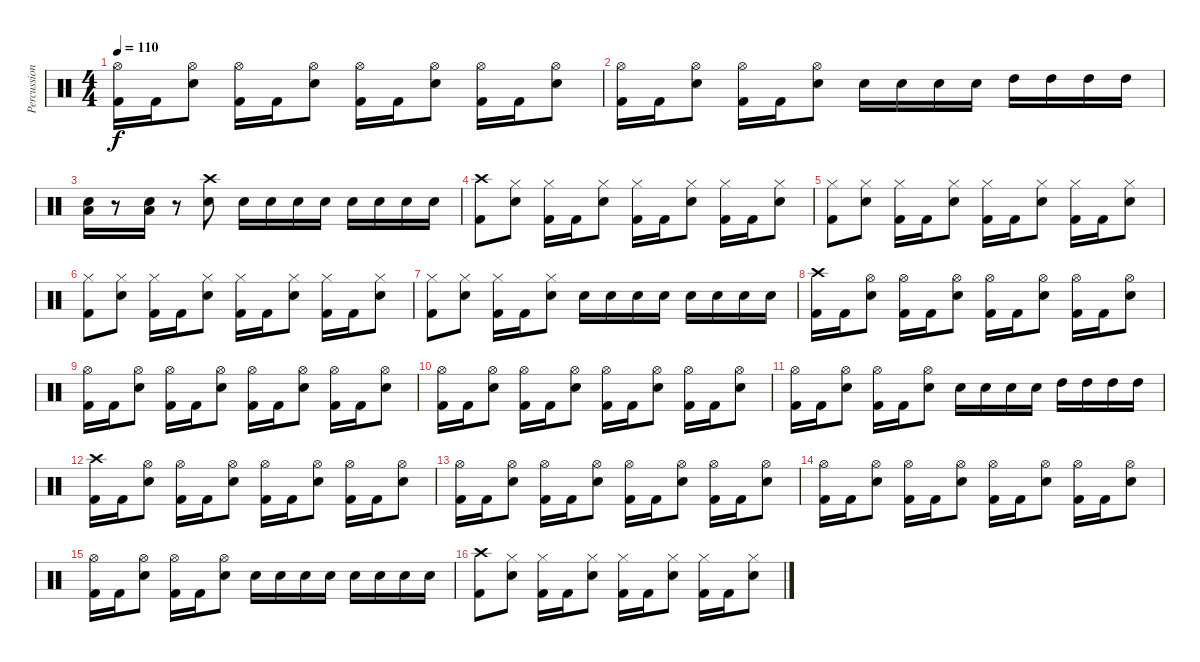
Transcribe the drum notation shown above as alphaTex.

\track ("Percussion" "Percussion") {instrument percussion}
\staff {score}
\articulation defaults
\ts (4 4)
\tempo 110
\clef neutral
\ks c
("Hi-Hat (open)" "Kick (hit) 2").16{dy f} "Kick (hit) 2".16 ("Hi-Hat (open)" "Electric Snare (hit)").8 ("Hi-Hat (open)" "Kick (hit) 2").16 "Kick (hit) 2".16 ("Hi-Hat (open)" "Electric Snare (hit)").8 ("Hi-Hat (open)" "Kick (hit) 2").16 "Kick (hit) 2".16 ("Hi-Hat (open)" "Electric Snare (hit)").8 ("Hi-Hat (open)" "Kick (hit) 2").16 "Kick (hit) 2".16 ("Hi-Hat (open)" "Electric Snare (hit)").8 |
("Hi-Hat (open)" "Kick (hit) 2").16 "Kick (hit) 2".16 ("Hi-Hat (open)" "Electric Snare (hit)").8 ("Hi-Hat (open)" "Kick (hit) 2").16 "Kick (hit) 2".16 ("Hi-Hat (open)" "Electric Snare (hit)").8 "Electric Snare (hit)".16 "Electric Snare (hit)".16 "Electric Snare (hit)".16 "Electric Snare (hit)".16 "High Tom (hit)".16 "High Tom (hit)".16 "High Tom (hit)".16 "High Tom (hit)".16 |
("Low Tom (hit)" "Electric Snare (hit)").16 r.8 ("Low Tom (hit)" "Electric Snare (hit)").16 r.8 ("Crash high (hit)" "Electric Snare (hit)").8 "Electric Snare (hit)".16 "Electric Snare (hit)".16 "Electric Snare (hit)".16 "Electric Snare (hit)".16 "Electric Snare (hit)".16 "Electric Snare (hit)".16 "Electric Snare (hit)".16 "Electric Snare (hit)".16 |
("Crash high (hit)" "Kick (hit) 2").8 ("Hi-Hat (closed)" "Electric Snare (hit)").8 ("Hi-Hat (closed)" "Kick (hit) 2").16 "Kick (hit) 2".16 ("Hi-Hat (closed)" "Electric Snare (hit)").8 ("Hi-Hat (closed)" "Kick (hit) 2").16 "Kick (hit) 2".16 ("Hi-Hat (closed)" "Electric Snare (hit)").8 ("Hi-Hat (closed)" "Kick (hit) 2").16 "Kick (hit) 2".16 ("Hi-Hat (closed)" "Electric Snare (hit)").8 |
("Hi-Hat (closed)" "Kick (hit) 2").8 ("Hi-Hat (closed)" "Electric Snare (hit)").8 ("Hi-Hat (closed)" "Kick (hit) 2").16 "Kick (hit) 2".16 ("Hi-Hat (closed)" "Electric Snare (hit)").8 ("Hi-Hat (closed)" "Kick (hit) 2").16 "Kick (hit) 2".16 ("Hi-Hat (closed)" "Electric Snare (hit)").8 ("Hi-Hat (closed)" "Kick (hit) 2").16 "Kick (hit) 2".16 ("Hi-Hat (closed)" "Electric Snare (hit)").8 |
("Hi-Hat (closed)" "Kick (hit) 2").8 ("Hi-Hat (closed)" "Electric Snare (hit)").8 ("Hi-Hat (closed)" "Kick (hit) 2").16 "Kick (hit) 2".16 ("Hi-Hat (closed)" "Electric Snare (hit)").8 ("Hi-Hat (closed)" "Kick (hit) 2").16 "Kick (hit) 2".16 ("Hi-Hat (closed)" "Electric Snare (hit)").8 ("Hi-Hat (closed)" "Kick (hit) 2").16 "Kick (hit) 2".16 ("Hi-Hat (closed)" "Electric Snare (hit)").8 |
("Hi-Hat (closed)" "Kick (hit) 2").8 ("Hi-Hat (closed)" "Electric Snare (hit)").8 ("Hi-Hat (closed)" "Kick (hit) 2").16 "Kick (hit) 2".16 ("Hi-Hat (closed)" "Electric Snare (hit)").8 "Electric Snare (hit)".16 "Electric Snare (hit)".16 "Electric Snare (hit)".16 "Electric Snare (hit)".16 "Electric Snare (hit)".16 "Electric Snare (hit)".16 "Electric Snare (hit)".16 "Electric Snare (hit)".16 |
("Crash high (hit)" "Kick (hit) 2").16 "Kick (hit) 2".16 ("Hi-Hat (open)" "Electric Snare (hit)").8 ("Hi-Hat (open)" "Kick (hit) 2").16 "Kick (hit) 2".16 ("Hi-Hat (open)" "Electric Snare (hit)").8 ("Hi-Hat (open)" "Kick (hit) 2").16 "Kick (hit) 2".16 ("Hi-Hat (open)" "Electric Snare (hit)").8 ("Hi-Hat (open)" "Kick (hit) 2").16 "Kick (hit) 2".16 ("Hi-Hat (open)" "Electric Snare (hit)").8 |
("Hi-Hat (open)" "Kick (hit) 2").16 "Kick (hit) 2".16 ("Hi-Hat (open)" "Electric Snare (hit)").8 ("Hi-Hat (open)" "Kick (hit) 2").16 "Kick (hit) 2".16 ("Hi-Hat (open)" "Electric Snare (hit)").8 ("Hi-Hat (open)" "Kick (hit) 2").16 "Kick (hit) 2".16 ("Hi-Hat (open)" "Electric Snare (hit)").8 ("Hi-Hat (open)" "Kick (hit) 2").16 "Kick (hit) 2".16 ("Hi-Hat (open)" "Electric Snare (hit)").8 |
("Hi-Hat (open)" "Kick (hit) 2").16 "Kick (hit) 2".16 ("Hi-Hat (open)" "Electric Snare (hit)").8 ("Hi-Hat (open)" "Kick (hit) 2").16 "Kick (hit) 2".16 ("Hi-Hat (open)" "Electric Snare (hit)").8 ("Hi-Hat (open)" "Kick (hit) 2").16 "Kick (hit) 2".16 ("Hi-Hat (open)" "Electric Snare (hit)").8 ("Hi-Hat (open)" "Kick (hit) 2").16 "Kick (hit) 2".16 ("Hi-Hat (open)" "Electric Snare (hit)").8 |
("Hi-Hat (open)" "Kick (hit) 2").16 "Kick (hit) 2".16 ("Hi-Hat (open)" "Electric Snare (hit)").8 ("Hi-Hat (open)" "Kick (hit) 2").16 "Kick (hit) 2".16 ("Hi-Hat (open)" "Electric Snare (hit)").8 "Electric Snare (hit)".16 "Electric Snare (hit)".16 "Electric Snare (hit)".16 "Electric Snare (hit)".16 "High Tom (hit)".16 "High Tom (hit)".16 "High Tom (hit)".16 "High Tom (hit)".16 |
("Crash high (hit)" "Kick (hit) 2").16 "Kick (hit) 2".16 ("Hi-Hat (open)" "Electric Snare (hit)").8 ("Hi-Hat (open)" "Kick (hit) 2").16 "Kick (hit) 2".16 ("Hi-Hat (open)" "Electric Snare (hit)").8 ("Hi-Hat (open)" "Kick (hit) 2").16 "Kick (hit) 2".16 ("Hi-Hat (open)" "Electric Snare (hit)").8 ("Hi-Hat (open)" "Kick (hit) 2").16 "Kick (hit) 2".16 ("Hi-Hat (open)" "Electric Snare (hit)").8 |
("Hi-Hat (open)" "Kick (hit) 2").16 "Kick (hit) 2".16 ("Hi-Hat (open)" "Electric Snare (hit)").8 ("Hi-Hat (open)" "Kick (hit) 2").16 "Kick (hit) 2".16 ("Hi-Hat (open)" "Electric Snare (hit)").8 ("Hi-Hat (open)" "Kick (hit) 2").16 "Kick (hit) 2".16 ("Hi-Hat (open)" "Electric Snare (hit)").8 ("Hi-Hat (open)" "Kick (hit) 2").16 "Kick (hit) 2".16 ("Hi-Hat (open)" "Electric Snare (hit)").8 |
("Hi-Hat (open)" "Kick (hit) 2").16 "Kick (hit) 2".16 ("Hi-Hat (open)" "Electric Snare (hit)").8 ("Hi-Hat (open)" "Kick (hit) 2").16 "Kick (hit) 2".16 ("Hi-Hat (open)" "Electric Snare (hit)").8 ("Hi-Hat (open)" "Kick (hit) 2").16 "Kick (hit) 2".16 ("Hi-Hat (open)" "Electric Snare (hit)").8 ("Hi-Hat (open)" "Kick (hit) 2").16 "Kick (hit) 2".16 ("Hi-Hat (open)" "Electric Snare (hit)").8 |
("Hi-Hat (open)" "Kick (hit) 2").16 "Kick (hit) 2".16 ("Hi-Hat (open)" "Electric Snare (hit)").8 ("Hi-Hat (open)" "Kick (hit) 2").16 "Kick (hit) 2".16 ("Hi-Hat (open)" "Electric Snare (hit)").8 "Electric Snare (hit)".16 "Electric Snare (hit)".16 "Electric Snare (hit)".16 "Electric Snare (hit)".16 "Electric Snare (hit)".16 "Electric Snare (hit)".16 "Electric Snare (hit)".16 "Electric Snare (hit)".16 |
("Crash high (hit)" "Kick (hit) 2").8 ("Hi-Hat (closed)" "Electric Snare (hit)").8 ("Hi-Hat (closed)" "Kick (hit) 2").16 "Kick (hit) 2".16 ("Hi-Hat (closed)" "Electric Snare (hit)").8 ("Hi-Hat (closed)" "Kick (hit) 2").16 "Kick (hit) 2".16 ("Hi-Hat (closed)" "Electric Snare (hit)").8 ("Hi-Hat (closed)" "Kick (hit) 2").16 "Kick (hit) 2".16 ("Hi-Hat (closed)" "Electric Snare (hit)").8
